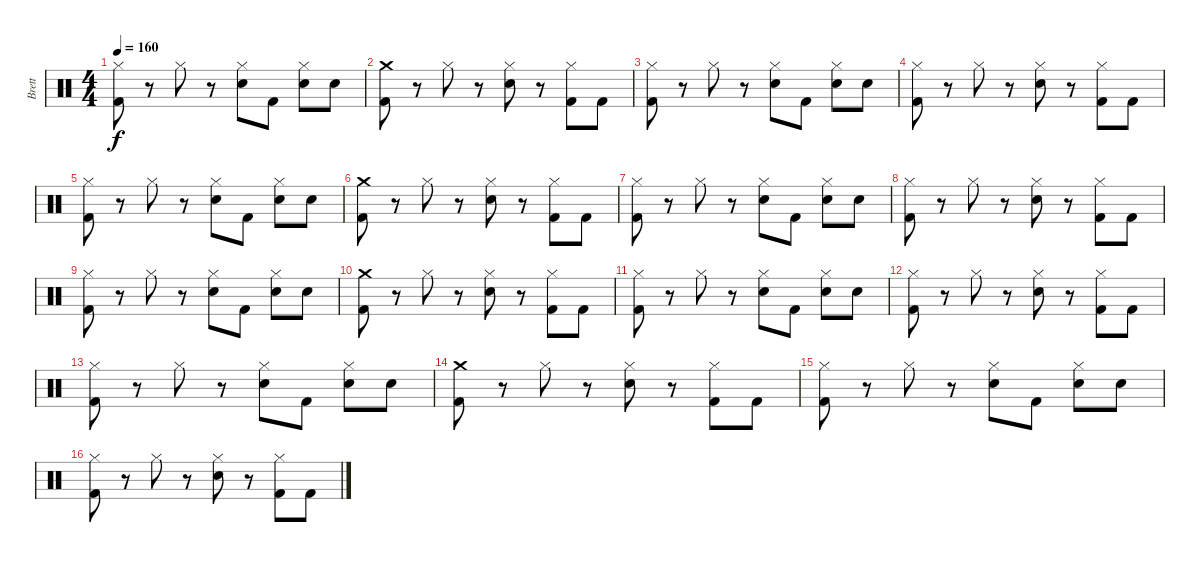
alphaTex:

\track ("Brett" "Brett") {instrument percussion}
\staff {score}
\articulation defaults
\ts (4 4)
\tempo 160
\clef neutral
\ks c
("Hi-Hat (closed)" "Kick (hit) 2").8{dy f} r.8 "Hi-Hat (closed)".8 r.8 ("Hi-Hat (closed)" "Snare (hit) 2").8 "Kick (hit) 2".8 ("Hi-Hat (closed)" "Snare (hit) 2").8 "Snare (hit) 2".8 |
("Crash medium (hit)" "Kick (hit) 2").8 r.8 "Hi-Hat (closed)".8 r.8 ("Hi-Hat (closed)" "Snare (hit) 2").8 r.8 ("Hi-Hat (closed)" "Kick (hit) 2").8 "Kick (hit) 2".8 |
("Hi-Hat (closed)" "Kick (hit) 2").8 r.8 "Hi-Hat (closed)".8 r.8 ("Hi-Hat (closed)" "Snare (hit) 2").8 "Kick (hit) 2".8 ("Hi-Hat (closed)" "Snare (hit) 2").8 "Snare (hit) 2".8 |
("Hi-Hat (closed)" "Kick (hit) 2").8 r.8 "Hi-Hat (closed)".8 r.8 ("Hi-Hat (closed)" "Snare (hit) 2").8 r.8 ("Hi-Hat (closed)" "Kick (hit) 2").8 "Kick (hit) 2".8 |
("Hi-Hat (closed)" "Kick (hit) 2").8 r.8 "Hi-Hat (closed)".8 r.8 ("Hi-Hat (closed)" "Snare (hit) 2").8 "Kick (hit) 2".8 ("Hi-Hat (closed)" "Snare (hit) 2").8 "Snare (hit) 2".8 |
("Crash medium (hit)" "Kick (hit) 2").8 r.8 "Hi-Hat (closed)".8 r.8 ("Hi-Hat (closed)" "Snare (hit) 2").8 r.8 ("Hi-Hat (closed)" "Kick (hit) 2").8 "Kick (hit) 2".8 |
("Hi-Hat (closed)" "Kick (hit) 2").8 r.8 "Hi-Hat (closed)".8 r.8 ("Hi-Hat (closed)" "Snare (hit) 2").8 "Kick (hit) 2".8 ("Hi-Hat (closed)" "Snare (hit) 2").8 "Snare (hit) 2".8 |
("Hi-Hat (closed)" "Kick (hit) 2").8 r.8 "Hi-Hat (closed)".8 r.8 ("Hi-Hat (closed)" "Snare (hit) 2").8 r.8 ("Hi-Hat (closed)" "Kick (hit) 2").8 "Kick (hit) 2".8 |
("Hi-Hat (closed)" "Kick (hit) 2").8 r.8 "Hi-Hat (closed)".8 r.8 ("Hi-Hat (closed)" "Snare (hit) 2").8 "Kick (hit) 2".8 ("Hi-Hat (closed)" "Snare (hit) 2").8 "Snare (hit) 2".8 |
("Crash medium (hit)" "Kick (hit) 2").8 r.8 "Hi-Hat (closed)".8 r.8 ("Hi-Hat (closed)" "Snare (hit) 2").8 r.8 ("Hi-Hat (closed)" "Kick (hit) 2").8 "Kick (hit) 2".8 |
("Hi-Hat (closed)" "Kick (hit) 2").8 r.8 "Hi-Hat (closed)".8 r.8 ("Hi-Hat (closed)" "Snare (hit) 2").8 "Kick (hit) 2".8 ("Hi-Hat (closed)" "Snare (hit) 2").8 "Snare (hit) 2".8 |
("Hi-Hat (closed)" "Kick (hit) 2").8 r.8 "Hi-Hat (closed)".8 r.8 ("Hi-Hat (closed)" "Snare (hit) 2").8 r.8 ("Hi-Hat (closed)" "Kick (hit) 2").8 "Kick (hit) 2".8 |
("Hi-Hat (closed)" "Kick (hit) 2").8 r.8 "Hi-Hat (closed)".8 r.8 ("Hi-Hat (closed)" "Snare (hit) 2").8 "Kick (hit) 2".8 ("Hi-Hat (closed)" "Snare (hit) 2").8 "Snare (hit) 2".8 |
("Crash medium (hit)" "Kick (hit) 2").8 r.8 "Hi-Hat (closed)".8 r.8 ("Hi-Hat (closed)" "Snare (hit) 2").8 r.8 ("Hi-Hat (closed)" "Kick (hit) 2").8 "Kick (hit) 2".8 |
("Hi-Hat (closed)" "Kick (hit) 2").8 r.8 "Hi-Hat (closed)".8 r.8 ("Hi-Hat (closed)" "Snare (hit) 2").8 "Kick (hit) 2".8 ("Hi-Hat (closed)" "Snare (hit) 2").8 "Snare (hit) 2".8 |
("Hi-Hat (closed)" "Kick (hit) 2").8 r.8 "Hi-Hat (closed)".8 r.8 ("Hi-Hat (closed)" "Snare (hit) 2").8 r.8 ("Hi-Hat (closed)" "Kick (hit) 2").8 "Kick (hit) 2".8
